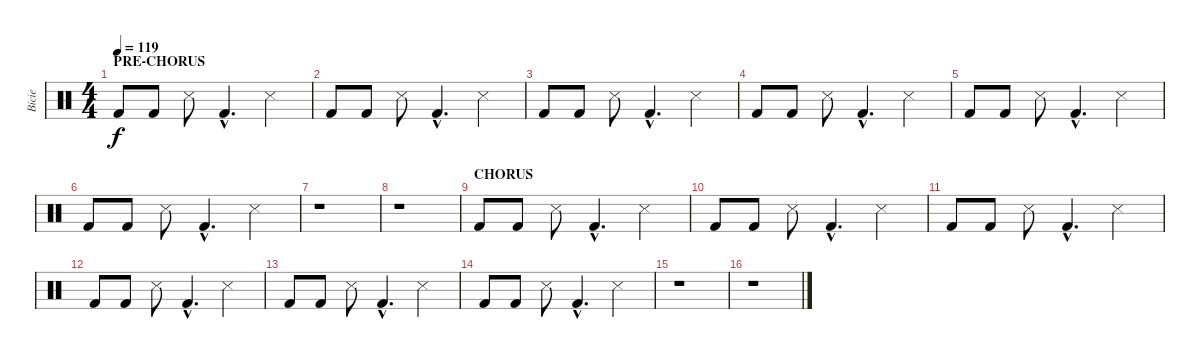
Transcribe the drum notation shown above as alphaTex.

\track ("Bicie" "Bicie") {instrument percussion}
\staff {score}
\articulation defaults
\ts (4 4)
\section ("" "PRE-CHORUS")
\tempo 119
\clef neutral
\ks c "Kick (hit) 2".8{dy f} "Kick (hit) 2".8 "Metronome (hit)".8 "Kick (hit) 2"{hac}.4{d} "Metronome (hit)".4
|
"Kick (hit) 2".8 "Kick (hit) 2".8 "Metronome (hit)".8 "Kick (hit) 2"{hac}.4{d} "Metronome (hit)".4 |
"Kick (hit) 2".8 "Kick (hit) 2".8 "Metronome (hit)".8 "Kick (hit) 2"{hac}.4{d} "Metronome (hit)".4 |
"Kick (hit) 2".8 "Kick (hit) 2".8 "Metronome (hit)".8 "Kick (hit) 2"{hac}.4{d} "Metronome (hit)".4 |
"Kick (hit) 2".8 "Kick (hit) 2".8 "Metronome (hit)".8 "Kick (hit) 2"{hac}.4{d} "Metronome (hit)".4 |
"Kick (hit) 2".8 "Kick (hit) 2".8 "Metronome (hit)".8 "Kick (hit) 2"{hac}.4{d} "Metronome (hit)".4 |
r.1 |
r.1 |
\section ("" "CHORUS")
"Kick (hit) 2".8 "Kick (hit) 2".8 "Metronome (hit)".8 "Kick (hit) 2"{hac}.4{d} "Metronome (hit)".4 |
"Kick (hit) 2".8 "Kick (hit) 2".8 "Metronome (hit)".8 "Kick (hit) 2"{hac}.4{d} "Metronome (hit)".4 |
"Kick (hit) 2".8 "Kick (hit) 2".8 "Metronome (hit)".8 "Kick (hit) 2"{hac}.4{d} "Metronome (hit)".4 |
"Kick (hit) 2".8 "Kick (hit) 2".8 "Metronome (hit)".8 "Kick (hit) 2"{hac}.4{d} "Metronome (hit)".4 |
"Kick (hit) 2".8 "Kick (hit) 2".8 "Metronome (hit)".8 "Kick (hit) 2"{hac}.4{d} "Metronome (hit)".4 |
"Kick (hit) 2".8 "Kick (hit) 2".8 "Metronome (hit)".8 "Kick (hit) 2"{hac}.4{d} "Metronome (hit)".4 |
r.1 |
r.1
